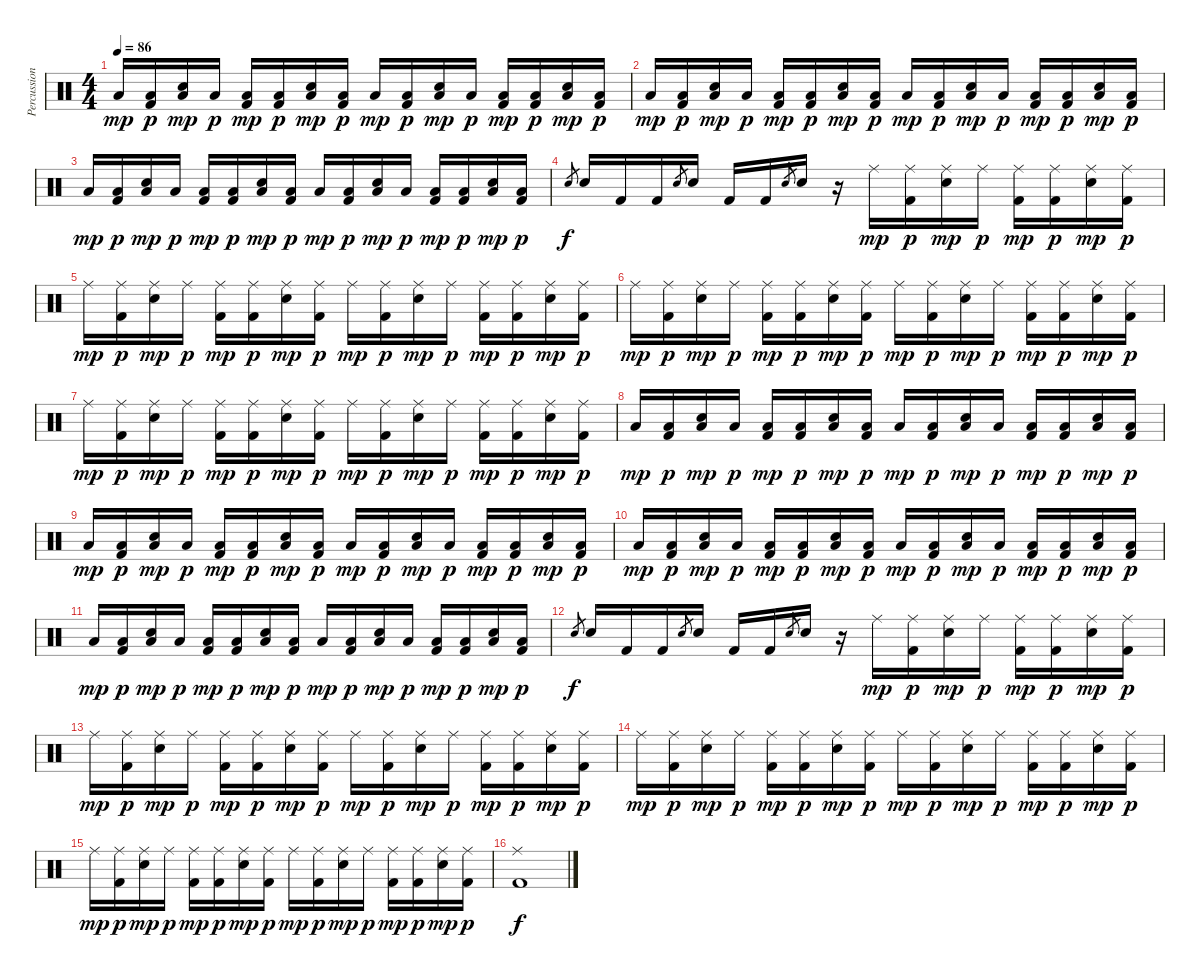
\track ("Percussion" "Percussion") {instrument percussion}
\staff {score}
\articulation defaults
\ts (4 4)
\tempo 86
\clef neutral
\ks c "Low Floor Tom (hit)".16{dy mp}
("Low Floor Tom (hit)" "Kick (hit) 2").16{dy p} ("Low Floor Tom (hit)" "Electric Snare (hit)").16{dy mp} "Low Floor Tom (hit)".16{dy p} ("Low Floor Tom (hit)" "Kick (hit) 2").16{dy mp} ("Low Floor Tom (hit)" "Kick (hit) 2").16{dy p} ("Low Floor Tom (hit)" "Electric Snare (hit)").16{dy mp} ("Low Floor Tom (hit)" "Kick (hit) 2").16{dy p} "Low Floor Tom (hit)".16{dy mp} ("Low Floor Tom (hit)" "Kick (hit) 2").16{dy p} ("Low Floor Tom (hit)" "Electric Snare (hit)").16{dy mp} "Low Floor Tom (hit)".16{dy p} ("Low Floor Tom (hit)" "Kick (hit) 2").16{dy mp} ("Low Floor Tom (hit)" "Kick (hit) 2").16{dy p} ("Low Floor Tom (hit)" "Electric Snare (hit)").16{dy mp} ("Low Floor Tom (hit)" "Kick (hit) 2").16{dy p} |
"Low Floor Tom (hit)".16{dy mp} ("Low Floor Tom (hit)" "Kick (hit) 2").16{dy p} ("Low Floor Tom (hit)" "Electric Snare (hit)").16{dy mp} "Low Floor Tom (hit)".16{dy p} ("Low Floor Tom (hit)" "Kick (hit) 2").16{dy mp} ("Low Floor Tom (hit)" "Kick (hit) 2").16{dy p} ("Low Floor Tom (hit)" "Electric Snare (hit)").16{dy mp} ("Low Floor Tom (hit)" "Kick (hit) 2").16{dy p} "Low Floor Tom (hit)".16{dy mp} ("Low Floor Tom (hit)" "Kick (hit) 2").16{dy p} ("Low Floor Tom (hit)" "Electric Snare (hit)").16{dy mp} "Low Floor Tom (hit)".16{dy p} ("Low Floor Tom (hit)" "Kick (hit) 2").16{dy mp} ("Low Floor Tom (hit)" "Kick (hit) 2").16{dy p} ("Low Floor Tom (hit)" "Electric Snare (hit)").16{dy mp} ("Low Floor Tom (hit)" "Kick (hit) 2").16{dy p} |
"Low Floor Tom (hit)".16{dy mp} ("Low Floor Tom (hit)" "Kick (hit) 2").16{dy p} ("Low Floor Tom (hit)" "Electric Snare (hit)").16{dy mp} "Low Floor Tom (hit)".16{dy p} ("Low Floor Tom (hit)" "Kick (hit) 2").16{dy mp} ("Low Floor Tom (hit)" "Kick (hit) 2").16{dy p} ("Low Floor Tom (hit)" "Electric Snare (hit)").16{dy mp} ("Low Floor Tom (hit)" "Kick (hit) 2").16{dy p} "Low Floor Tom (hit)".16{dy mp} ("Low Floor Tom (hit)" "Kick (hit) 2").16{dy p} ("Low Floor Tom (hit)" "Electric Snare (hit)").16{dy mp} "Low Floor Tom (hit)".16{dy p} ("Low Floor Tom (hit)" "Kick (hit) 2").16{dy mp} ("Low Floor Tom (hit)" "Kick (hit) 2").16{dy p} ("Low Floor Tom (hit)" "Electric Snare (hit)").16{dy mp} ("Low Floor Tom (hit)" "Kick (hit) 2").16{dy p} |
"Electric Snare (hit)".8{gr dy f} "Electric Snare (hit)".16 "Kick (hit) 2".16 "Kick (hit) 2".16 "Electric Snare (hit)".8{gr} "Electric Snare (hit)".16 "Kick (hit) 2".16 "Kick (hit) 2".16 "Electric Snare (hit)".8{gr} "Electric Snare (hit)".16 r.16 "Ride (middle)".16{dy mp} ("Ride (middle)" "Kick (hit) 2").16{dy p} ("Ride (middle)" "Electric Snare (hit)").16{dy mp} "Ride (middle)".16{dy p} ("Ride (middle)" "Kick (hit) 2").16{dy mp} ("Ride (middle)" "Kick (hit) 2").16{dy p} ("Ride (middle)" "Electric Snare (hit)").16{dy mp} ("Ride (middle)" "Kick (hit) 2").16{dy p} |
"Ride (middle)".16{dy mp} ("Ride (middle)" "Kick (hit) 2").16{dy p} ("Ride (middle)" "Electric Snare (hit)").16{dy mp} "Ride (middle)".16{dy p} ("Ride (middle)" "Kick (hit) 2").16{dy mp} ("Ride (middle)" "Kick (hit) 2").16{dy p} ("Ride (middle)" "Electric Snare (hit)").16{dy mp} ("Ride (middle)" "Kick (hit) 2").16{dy p} "Ride (middle)".16{dy mp} ("Ride (middle)" "Kick (hit) 2").16{dy p} ("Ride (middle)" "Electric Snare (hit)").16{dy mp} "Ride (middle)".16{dy p} ("Ride (middle)" "Kick (hit) 2").16{dy mp} ("Ride (middle)" "Kick (hit) 2").16{dy p} ("Ride (middle)" "Electric Snare (hit)").16{dy mp} ("Ride (middle)" "Kick (hit) 2").16{dy p} |
"Ride (middle)".16{dy mp} ("Ride (middle)" "Kick (hit) 2").16{dy p} ("Ride (middle)" "Electric Snare (hit)").16{dy mp} "Ride (middle)".16{dy p} ("Ride (middle)" "Kick (hit) 2").16{dy mp} ("Ride (middle)" "Kick (hit) 2").16{dy p} ("Ride (middle)" "Electric Snare (hit)").16{dy mp} ("Ride (middle)" "Kick (hit) 2").16{dy p} "Ride (middle)".16{dy mp} ("Ride (middle)" "Kick (hit) 2").16{dy p} ("Ride (middle)" "Electric Snare (hit)").16{dy mp} "Ride (middle)".16{dy p} ("Ride (middle)" "Kick (hit) 2").16{dy mp} ("Ride (middle)" "Kick (hit) 2").16{dy p} ("Ride (middle)" "Electric Snare (hit)").16{dy mp} ("Ride (middle)" "Kick (hit) 2").16{dy p} |
"Ride (middle)".16{dy mp} ("Ride (middle)" "Kick (hit) 2").16{dy p} ("Ride (middle)" "Electric Snare (hit)").16{dy mp} "Ride (middle)".16{dy p} ("Ride (middle)" "Kick (hit) 2").16{dy mp} ("Ride (middle)" "Kick (hit) 2").16{dy p} ("Ride (middle)" "Electric Snare (hit)").16{dy mp} ("Ride (middle)" "Kick (hit) 2").16{dy p} "Ride (middle)".16{dy mp} ("Ride (middle)" "Kick (hit) 2").16{dy p} ("Ride (middle)" "Electric Snare (hit)").16{dy mp} "Ride (middle)".16{dy p} ("Ride (middle)" "Kick (hit) 2").16{dy mp} ("Ride (middle)" "Kick (hit) 2").16{dy p} ("Ride (middle)" "Electric Snare (hit)").16{dy mp} ("Ride (middle)" "Kick (hit) 2").16{dy p} |
"Low Floor Tom (hit)".16{dy mp} ("Low Floor Tom (hit)" "Kick (hit) 2").16{dy p} ("Low Floor Tom (hit)" "Electric Snare (hit)").16{dy mp} "Low Floor Tom (hit)".16{dy p} ("Low Floor Tom (hit)" "Kick (hit) 2").16{dy mp} ("Low Floor Tom (hit)" "Kick (hit) 2").16{dy p} ("Low Floor Tom (hit)" "Electric Snare (hit)").16{dy mp} ("Low Floor Tom (hit)" "Kick (hit) 2").16{dy p} "Low Floor Tom (hit)".16{dy mp} ("Low Floor Tom (hit)" "Kick (hit) 2").16{dy p} ("Low Floor Tom (hit)" "Electric Snare (hit)").16{dy mp} "Low Floor Tom (hit)".16{dy p} ("Low Floor Tom (hit)" "Kick (hit) 2").16{dy mp} ("Low Floor Tom (hit)" "Kick (hit) 2").16{dy p} ("Low Floor Tom (hit)" "Electric Snare (hit)").16{dy mp} ("Low Floor Tom (hit)" "Kick (hit) 2").16{dy p} |
"Low Floor Tom (hit)".16{dy mp} ("Low Floor Tom (hit)" "Kick (hit) 2").16{dy p} ("Low Floor Tom (hit)" "Electric Snare (hit)").16{dy mp} "Low Floor Tom (hit)".16{dy p} ("Low Floor Tom (hit)" "Kick (hit) 2").16{dy mp} ("Low Floor Tom (hit)" "Kick (hit) 2").16{dy p} ("Low Floor Tom (hit)" "Electric Snare (hit)").16{dy mp} ("Low Floor Tom (hit)" "Kick (hit) 2").16{dy p} "Low Floor Tom (hit)".16{dy mp} ("Low Floor Tom (hit)" "Kick (hit) 2").16{dy p} ("Low Floor Tom (hit)" "Electric Snare (hit)").16{dy mp} "Low Floor Tom (hit)".16{dy p} ("Low Floor Tom (hit)" "Kick (hit) 2").16{dy mp} ("Low Floor Tom (hit)" "Kick (hit) 2").16{dy p} ("Low Floor Tom (hit)" "Electric Snare (hit)").16{dy mp} ("Low Floor Tom (hit)" "Kick (hit) 2").16{dy p} |
"Low Floor Tom (hit)".16{dy mp} ("Low Floor Tom (hit)" "Kick (hit) 2").16{dy p} ("Low Floor Tom (hit)" "Electric Snare (hit)").16{dy mp} "Low Floor Tom (hit)".16{dy p} ("Low Floor Tom (hit)" "Kick (hit) 2").16{dy mp} ("Low Floor Tom (hit)" "Kick (hit) 2").16{dy p} ("Low Floor Tom (hit)" "Electric Snare (hit)").16{dy mp} ("Low Floor Tom (hit)" "Kick (hit) 2").16{dy p} "Low Floor Tom (hit)".16{dy mp} ("Low Floor Tom (hit)" "Kick (hit) 2").16{dy p} ("Low Floor Tom (hit)" "Electric Snare (hit)").16{dy mp} "Low Floor Tom (hit)".16{dy p} ("Low Floor Tom (hit)" "Kick (hit) 2").16{dy mp} ("Low Floor Tom (hit)" "Kick (hit) 2").16{dy p} ("Low Floor Tom (hit)" "Electric Snare (hit)").16{dy mp} ("Low Floor Tom (hit)" "Kick (hit) 2").16{dy p} |
"Low Floor Tom (hit)".16{dy mp} ("Low Floor Tom (hit)" "Kick (hit) 2").16{dy p} ("Low Floor Tom (hit)" "Electric Snare (hit)").16{dy mp} "Low Floor Tom (hit)".16{dy p} ("Low Floor Tom (hit)" "Kick (hit) 2").16{dy mp} ("Low Floor Tom (hit)" "Kick (hit) 2").16{dy p} ("Low Floor Tom (hit)" "Electric Snare (hit)").16{dy mp} ("Low Floor Tom (hit)" "Kick (hit) 2").16{dy p} "Low Floor Tom (hit)".16{dy mp} ("Low Floor Tom (hit)" "Kick (hit) 2").16{dy p} ("Low Floor Tom (hit)" "Electric Snare (hit)").16{dy mp} "Low Floor Tom (hit)".16{dy p} ("Low Floor Tom (hit)" "Kick (hit) 2").16{dy mp} ("Low Floor Tom (hit)" "Kick (hit) 2").16{dy p} ("Low Floor Tom (hit)" "Electric Snare (hit)").16{dy mp} ("Low Floor Tom (hit)" "Kick (hit) 2").16{dy p} |
"Electric Snare (hit)".8{gr dy f} "Electric Snare (hit)".16 "Kick (hit) 2".16 "Kick (hit) 2".16 "Electric Snare (hit)".8{gr} "Electric Snare (hit)".16 "Kick (hit) 2".16 "Kick (hit) 2".16 "Electric Snare (hit)".8{gr} "Electric Snare (hit)".16 r.16 "Ride (middle)".16{dy mp} ("Ride (middle)" "Kick (hit) 2").16{dy p} ("Ride (middle)" "Electric Snare (hit)").16{dy mp} "Ride (middle)".16{dy p} ("Ride (middle)" "Kick (hit) 2").16{dy mp} ("Ride (middle)" "Kick (hit) 2").16{dy p} ("Ride (middle)" "Electric Snare (hit)").16{dy mp} ("Ride (middle)" "Kick (hit) 2").16{dy p} |
"Ride (middle)".16{dy mp} ("Ride (middle)" "Kick (hit) 2").16{dy p} ("Ride (middle)" "Electric Snare (hit)").16{dy mp} "Ride (middle)".16{dy p} ("Ride (middle)" "Kick (hit) 2").16{dy mp} ("Ride (middle)" "Kick (hit) 2").16{dy p} ("Ride (middle)" "Electric Snare (hit)").16{dy mp} ("Ride (middle)" "Kick (hit) 2").16{dy p} "Ride (middle)".16{dy mp} ("Ride (middle)" "Kick (hit) 2").16{dy p} ("Ride (middle)" "Electric Snare (hit)").16{dy mp} "Ride (middle)".16{dy p} ("Ride (middle)" "Kick (hit) 2").16{dy mp} ("Ride (middle)" "Kick (hit) 2").16{dy p} ("Ride (middle)" "Electric Snare (hit)").16{dy mp} ("Ride (middle)" "Kick (hit) 2").16{dy p} |
"Ride (middle)".16{dy mp} ("Ride (middle)" "Kick (hit) 2").16{dy p} ("Ride (middle)" "Electric Snare (hit)").16{dy mp} "Ride (middle)".16{dy p} ("Ride (middle)" "Kick (hit) 2").16{dy mp} ("Ride (middle)" "Kick (hit) 2").16{dy p} ("Ride (middle)" "Electric Snare (hit)").16{dy mp} ("Ride (middle)" "Kick (hit) 2").16{dy p} "Ride (middle)".16{dy mp} ("Ride (middle)" "Kick (hit) 2").16{dy p} ("Ride (middle)" "Electric Snare (hit)").16{dy mp} "Ride (middle)".16{dy p} ("Ride (middle)" "Kick (hit) 2").16{dy mp} ("Ride (middle)" "Kick (hit) 2").16{dy p} ("Ride (middle)" "Electric Snare (hit)").16{dy mp} ("Ride (middle)" "Kick (hit) 2").16{dy p} |
"Ride (middle)".16{dy mp} ("Ride (middle)" "Kick (hit) 2").16{dy p} ("Ride (middle)" "Electric Snare (hit)").16{dy mp} "Ride (middle)".16{dy p} ("Ride (middle)" "Kick (hit) 2").16{dy mp} ("Ride (middle)" "Kick (hit) 2").16{dy p} ("Ride (middle)" "Electric Snare (hit)").16{dy mp} ("Ride (middle)" "Kick (hit) 2").16{dy p} "Ride (middle)".16{dy mp} ("Ride (middle)" "Kick (hit) 2").16{dy p} ("Ride (middle)" "Electric Snare (hit)").16{dy mp} "Ride (middle)".16{dy p} ("Ride (middle)" "Kick (hit) 2").16{dy mp} ("Ride (middle)" "Kick (hit) 2").16{dy p} ("Ride (middle)" "Electric Snare (hit)").16{dy mp} ("Ride (middle)" "Kick (hit) 2").16{dy p} |
("Ride (middle)" "Kick (hit) 2").1{dy f}
